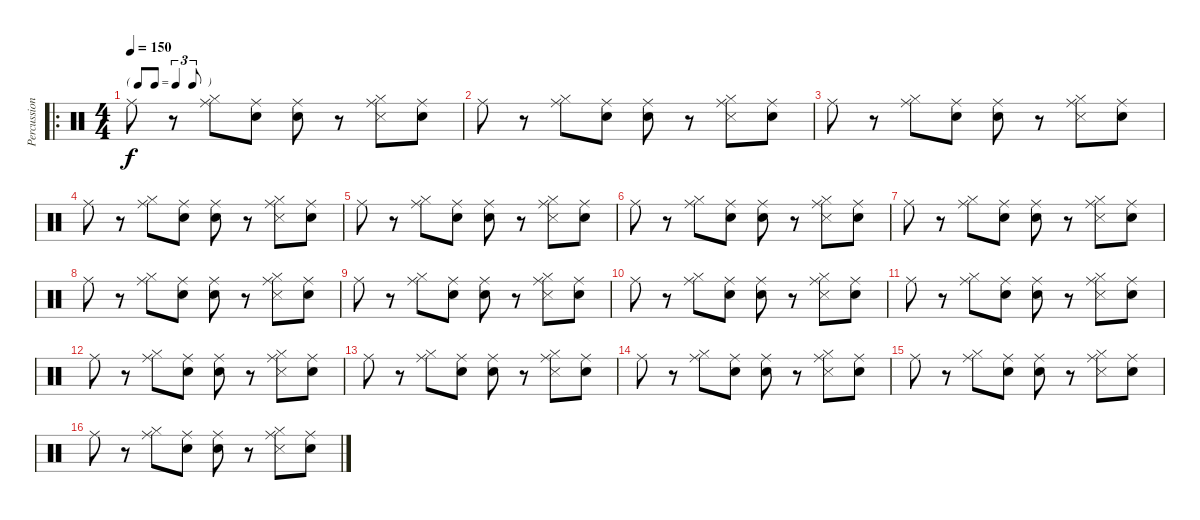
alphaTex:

\track ("Percussions" "Percussion") {instrument percussion}
\staff {score}
\articulation defaults
\ro
\ts (4 4)
\tf triplet8th
\tempo 150
\clef neutral
\ks c "Ride (middle)".8{dy f}
r.8 ("Hi-Hat (closed)" "Ride (middle)").8 ("Snare (hit)" "Ride (middle)").8 ("Snare (hit)" "Ride (middle)").8 r.8 ("Hi-Hat (closed)" "Snare (side stick) 3" "Ride (middle)").8 ("Snare (hit)" "Ride (middle)").8 |
"Ride (middle)".8 r.8 ("Hi-Hat (closed)" "Ride (middle)").8 ("Snare (hit)" "Ride (middle)").8 ("Snare (hit)" "Ride (middle)").8 r.8 ("Hi-Hat (closed)" "Snare (side stick) 3" "Ride (middle)").8 ("Snare (hit)" "Ride (middle)").8 |
"Ride (middle)".8 r.8 ("Hi-Hat (closed)" "Ride (middle)").8 ("Snare (hit)" "Ride (middle)").8 ("Snare (hit)" "Ride (middle)").8 r.8 ("Hi-Hat (closed)" "Snare (side stick) 3" "Ride (middle)").8 ("Snare (hit)" "Ride (middle)").8 |
"Ride (middle)".8 r.8 ("Hi-Hat (closed)" "Ride (middle)").8 ("Snare (hit)" "Ride (middle)").8 ("Snare (hit)" "Ride (middle)").8 r.8 ("Hi-Hat (closed)" "Snare (side stick) 3" "Ride (middle)").8 ("Snare (hit)" "Ride (middle)").8 |
"Ride (middle)".8 r.8 ("Hi-Hat (closed)" "Ride (middle)").8 ("Snare (hit)" "Ride (middle)").8 ("Snare (hit)" "Ride (middle)").8 r.8 ("Hi-Hat (closed)" "Snare (side stick) 3" "Ride (middle)").8 ("Snare (hit)" "Ride (middle)").8 |
"Ride (middle)".8 r.8 ("Hi-Hat (closed)" "Ride (middle)").8 ("Snare (hit)" "Ride (middle)").8 ("Snare (hit)" "Ride (middle)").8 r.8 ("Hi-Hat (closed)" "Snare (side stick) 3" "Ride (middle)").8 ("Snare (hit)" "Ride (middle)").8 |
"Ride (middle)".8 r.8 ("Hi-Hat (closed)" "Ride (middle)").8 ("Snare (hit)" "Ride (middle)").8 ("Snare (hit)" "Ride (middle)").8 r.8 ("Hi-Hat (closed)" "Snare (side stick) 3" "Ride (middle)").8 ("Snare (hit)" "Ride (middle)").8 |
"Ride (middle)".8 r.8 ("Hi-Hat (closed)" "Ride (middle)").8 ("Snare (hit)" "Ride (middle)").8 ("Snare (hit)" "Ride (middle)").8 r.8 ("Hi-Hat (closed)" "Snare (side stick) 3" "Ride (middle)").8 ("Snare (hit)" "Ride (middle)").8 |
"Ride (middle)".8 r.8 ("Hi-Hat (closed)" "Ride (middle)").8 ("Snare (hit)" "Ride (middle)").8 ("Snare (hit)" "Ride (middle)").8 r.8 ("Hi-Hat (closed)" "Snare (side stick) 3" "Ride (middle)").8 ("Snare (hit)" "Ride (middle)").8 |
"Ride (middle)".8 r.8 ("Hi-Hat (closed)" "Ride (middle)").8 ("Snare (hit)" "Ride (middle)").8 ("Snare (hit)" "Ride (middle)").8 r.8 ("Hi-Hat (closed)" "Snare (side stick) 3" "Ride (middle)").8 ("Snare (hit)" "Ride (middle)").8 |
"Ride (middle)".8 r.8 ("Hi-Hat (closed)" "Ride (middle)").8 ("Snare (hit)" "Ride (middle)").8 ("Snare (hit)" "Ride (middle)").8 r.8 ("Hi-Hat (closed)" "Snare (side stick) 3" "Ride (middle)").8 ("Snare (hit)" "Ride (middle)").8 |
"Ride (middle)".8 r.8 ("Hi-Hat (closed)" "Ride (middle)").8 ("Snare (hit)" "Ride (middle)").8 ("Snare (hit)" "Ride (middle)").8 r.8 ("Hi-Hat (closed)" "Snare (side stick) 3" "Ride (middle)").8 ("Snare (hit)" "Ride (middle)").8 |
"Ride (middle)".8 r.8 ("Hi-Hat (closed)" "Ride (middle)").8 ("Snare (hit)" "Ride (middle)").8 ("Snare (hit)" "Ride (middle)").8 r.8 ("Hi-Hat (closed)" "Snare (side stick) 3" "Ride (middle)").8 ("Snare (hit)" "Ride (middle)").8 |
"Ride (middle)".8 r.8 ("Hi-Hat (closed)" "Ride (middle)").8 ("Snare (hit)" "Ride (middle)").8 ("Snare (hit)" "Ride (middle)").8 r.8 ("Hi-Hat (closed)" "Snare (side stick) 3" "Ride (middle)").8 ("Snare (hit)" "Ride (middle)").8 |
"Ride (middle)".8 r.8 ("Hi-Hat (closed)" "Ride (middle)").8 ("Snare (hit)" "Ride (middle)").8 ("Snare (hit)" "Ride (middle)").8 r.8 ("Hi-Hat (closed)" "Snare (side stick) 3" "Ride (middle)").8 ("Snare (hit)" "Ride (middle)").8 |
"Ride (middle)".8 r.8 ("Hi-Hat (closed)" "Ride (middle)").8 ("Snare (hit)" "Ride (middle)").8 ("Snare (hit)" "Ride (middle)").8 r.8 ("Hi-Hat (closed)" "Snare (side stick) 3" "Ride (middle)").8 ("Snare (hit)" "Ride (middle)").8
